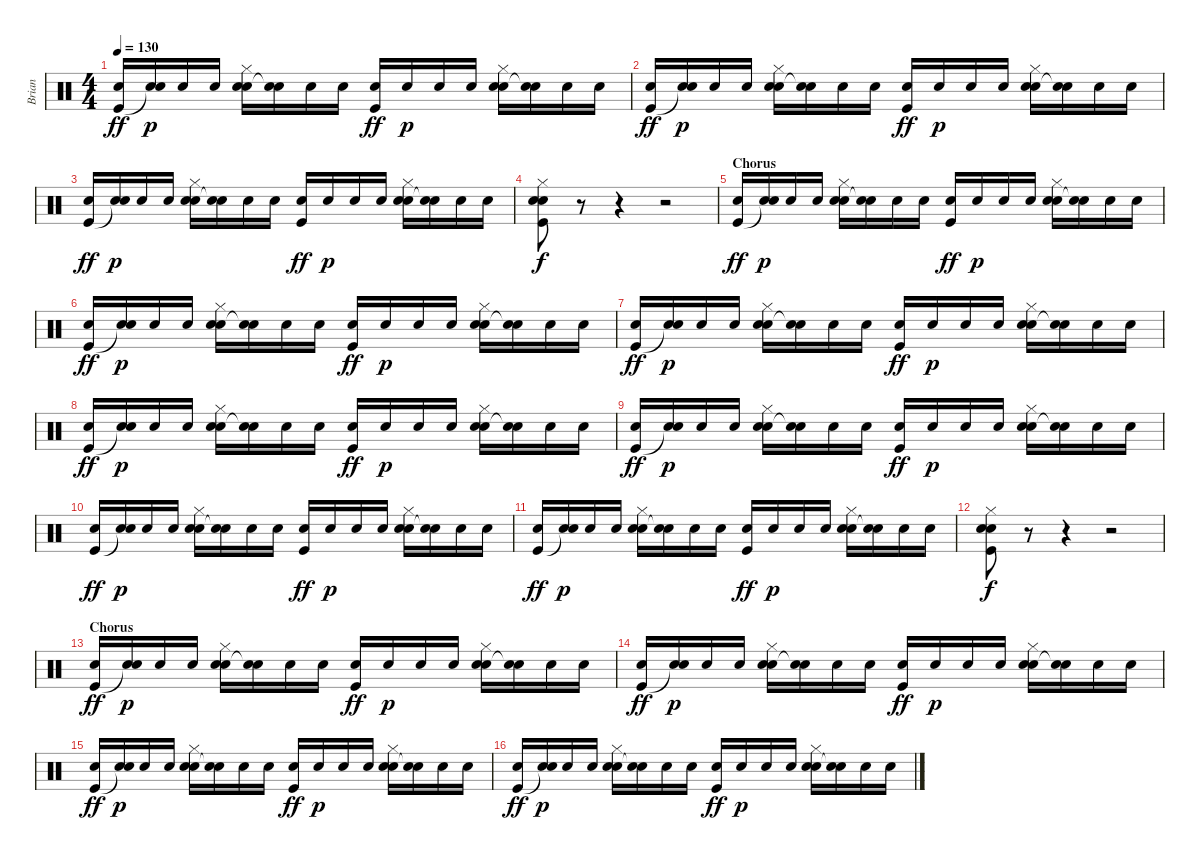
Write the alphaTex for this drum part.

\track ("Brian" "Brian") {instrument percussion}
\staff {score}
\articulation defaults
\ts (4 4)
\tempo 130
\clef neutral
\ks c
("Snare (hit) 2" "Kick (hit)").16{dy ff} ("Snare (hit) 2" "Snare (hit)"{t}).16{dy p} "Snare (hit) 2".16 "Snare (hit) 2".16 ("Snare (hit) 2" "Hi-Hat (closed)" "Snare (hit) 2").16 ("Snare (hit)"{t} "Snare (hit) 2").16 "Snare (hit) 2".16 "Snare (hit) 2".16 ("Snare (hit) 2" "Kick (hit)").16{dy ff} "Snare (hit) 2".16{dy p} "Snare (hit) 2".16 "Snare (hit) 2".16 ("Snare (hit) 2" "Hi-Hat (closed)" "Snare (hit) 2").16 ("Snare (hit)"{t} "Snare (hit) 2").16 "Snare (hit) 2".16 "Snare (hit) 2".16 |
("Snare (hit) 2" "Kick (hit)").16{dy ff} ("Snare (hit) 2" "Snare (hit)"{t}).16{dy p} "Snare (hit) 2".16 "Snare (hit) 2".16 ("Snare (hit) 2" "Hi-Hat (closed)" "Snare (hit) 2").16 ("Snare (hit)"{t} "Snare (hit) 2").16 "Snare (hit) 2".16 "Snare (hit) 2".16 ("Snare (hit) 2" "Kick (hit)").16{dy ff} "Snare (hit) 2".16{dy p} "Snare (hit) 2".16 "Snare (hit) 2".16 ("Snare (hit) 2" "Hi-Hat (closed)" "Snare (hit) 2").16 ("Snare (hit)"{t} "Snare (hit) 2").16 "Snare (hit) 2".16 "Snare (hit) 2".16 |
("Snare (hit) 2" "Kick (hit)").16{dy ff} ("Snare (hit) 2" "Snare (hit)"{t}).16{dy p} "Snare (hit) 2".16 "Snare (hit) 2".16 ("Snare (hit) 2" "Hi-Hat (closed)" "Snare (hit) 2").16 ("Snare (hit)"{t} "Snare (hit) 2").16 "Snare (hit) 2".16 "Snare (hit) 2".16 ("Snare (hit) 2" "Kick (hit)").16{dy ff} "Snare (hit) 2".16{dy p} "Snare (hit) 2".16 "Snare (hit) 2".16 ("Snare (hit) 2" "Hi-Hat (closed)" "Snare (hit) 2").16 ("Snare (hit)"{t} "Snare (hit) 2").16 "Snare (hit) 2".16 "Snare (hit) 2".16 |
("Snare (hit) 2" "Hi-Hat (closed)" "Snare (hit) 2" "Kick (hit)").8{dy f} r.8 r.4 r.2 |
\section ("" "Chorus")
("Snare (hit) 2" "Kick (hit)").16{dy ff} ("Snare (hit) 2" "Snare (hit)"{t}).16{dy p} "Snare (hit) 2".16 "Snare (hit) 2".16 ("Snare (hit) 2" "Hi-Hat (closed)" "Snare (hit) 2").16 ("Snare (hit)"{t} "Snare (hit) 2").16 "Snare (hit) 2".16 "Snare (hit) 2".16 ("Snare (hit) 2" "Kick (hit)").16{dy ff} "Snare (hit) 2".16{dy p} "Snare (hit) 2".16 "Snare (hit) 2".16 ("Snare (hit) 2" "Hi-Hat (closed)" "Snare (hit) 2").16 ("Snare (hit)"{t} "Snare (hit) 2").16 "Snare (hit) 2".16 "Snare (hit) 2".16 |
("Snare (hit) 2" "Kick (hit)").16{dy ff} ("Snare (hit) 2" "Snare (hit)"{t}).16{dy p} "Snare (hit) 2".16 "Snare (hit) 2".16 ("Snare (hit) 2" "Hi-Hat (closed)" "Snare (hit) 2").16 ("Snare (hit)"{t} "Snare (hit) 2").16 "Snare (hit) 2".16 "Snare (hit) 2".16 ("Snare (hit) 2" "Kick (hit)").16{dy ff} "Snare (hit) 2".16{dy p} "Snare (hit) 2".16 "Snare (hit) 2".16 ("Snare (hit) 2" "Hi-Hat (closed)" "Snare (hit) 2").16 ("Snare (hit)"{t} "Snare (hit) 2").16 "Snare (hit) 2".16 "Snare (hit) 2".16 |
("Snare (hit) 2" "Kick (hit)").16{dy ff} ("Snare (hit) 2" "Snare (hit)"{t}).16{dy p} "Snare (hit) 2".16 "Snare (hit) 2".16 ("Snare (hit) 2" "Hi-Hat (closed)" "Snare (hit) 2").16 ("Snare (hit)"{t} "Snare (hit) 2").16 "Snare (hit) 2".16 "Snare (hit) 2".16 ("Snare (hit) 2" "Kick (hit)").16{dy ff} "Snare (hit) 2".16{dy p} "Snare (hit) 2".16 "Snare (hit) 2".16 ("Snare (hit) 2" "Hi-Hat (closed)" "Snare (hit) 2").16 ("Snare (hit)"{t} "Snare (hit) 2").16 "Snare (hit) 2".16 "Snare (hit) 2".16 |
("Snare (hit) 2" "Kick (hit)").16{dy ff} ("Snare (hit) 2" "Snare (hit)"{t}).16{dy p} "Snare (hit) 2".16 "Snare (hit) 2".16 ("Snare (hit) 2" "Hi-Hat (closed)" "Snare (hit) 2").16 ("Snare (hit)"{t} "Snare (hit) 2").16 "Snare (hit) 2".16 "Snare (hit) 2".16 ("Snare (hit) 2" "Kick (hit)").16{dy ff} "Snare (hit) 2".16{dy p} "Snare (hit) 2".16 "Snare (hit) 2".16 ("Snare (hit) 2" "Hi-Hat (closed)" "Snare (hit) 2").16 ("Snare (hit)"{t} "Snare (hit) 2").16 "Snare (hit) 2".16 "Snare (hit) 2".16 |
("Snare (hit) 2" "Kick (hit)").16{dy ff} ("Snare (hit) 2" "Snare (hit)"{t}).16{dy p} "Snare (hit) 2".16 "Snare (hit) 2".16 ("Snare (hit) 2" "Hi-Hat (closed)" "Snare (hit) 2").16 ("Snare (hit)"{t} "Snare (hit) 2").16 "Snare (hit) 2".16 "Snare (hit) 2".16 ("Snare (hit) 2" "Kick (hit)").16{dy ff} "Snare (hit) 2".16{dy p} "Snare (hit) 2".16 "Snare (hit) 2".16 ("Snare (hit) 2" "Hi-Hat (closed)" "Snare (hit) 2").16 ("Snare (hit)"{t} "Snare (hit) 2").16 "Snare (hit) 2".16 "Snare (hit) 2".16 |
("Snare (hit) 2" "Kick (hit)").16{dy ff} ("Snare (hit) 2" "Snare (hit)"{t}).16{dy p} "Snare (hit) 2".16 "Snare (hit) 2".16 ("Snare (hit) 2" "Hi-Hat (closed)" "Snare (hit) 2").16 ("Snare (hit)"{t} "Snare (hit) 2").16 "Snare (hit) 2".16 "Snare (hit) 2".16 ("Snare (hit) 2" "Kick (hit)").16{dy ff} "Snare (hit) 2".16{dy p} "Snare (hit) 2".16 "Snare (hit) 2".16 ("Snare (hit) 2" "Hi-Hat (closed)" "Snare (hit) 2").16 ("Snare (hit)"{t} "Snare (hit) 2").16 "Snare (hit) 2".16 "Snare (hit) 2".16 |
("Snare (hit) 2" "Kick (hit)").16{dy ff} ("Snare (hit) 2" "Snare (hit)"{t}).16{dy p} "Snare (hit) 2".16 "Snare (hit) 2".16 ("Snare (hit) 2" "Hi-Hat (closed)" "Snare (hit) 2").16 ("Snare (hit)"{t} "Snare (hit) 2").16 "Snare (hit) 2".16 "Snare (hit) 2".16 ("Snare (hit) 2" "Kick (hit)").16{dy ff} "Snare (hit) 2".16{dy p} "Snare (hit) 2".16 "Snare (hit) 2".16 ("Snare (hit) 2" "Hi-Hat (closed)" "Snare (hit) 2").16 ("Snare (hit)"{t} "Snare (hit) 2").16 "Snare (hit) 2".16 "Snare (hit) 2".16 |
("Snare (hit) 2" "Hi-Hat (closed)" "Snare (hit) 2" "Kick (hit)").8{dy f} r.8 r.4 r.2 |
\section ("" "Chorus")
("Snare (hit) 2" "Kick (hit)").16{dy ff} ("Snare (hit) 2" "Snare (hit)"{t}).16{dy p} "Snare (hit) 2".16 "Snare (hit) 2".16 ("Snare (hit) 2" "Hi-Hat (closed)" "Snare (hit) 2").16 ("Snare (hit)"{t} "Snare (hit) 2").16 "Snare (hit) 2".16 "Snare (hit) 2".16 ("Snare (hit) 2" "Kick (hit)").16{dy ff} "Snare (hit) 2".16{dy p} "Snare (hit) 2".16 "Snare (hit) 2".16 ("Snare (hit) 2" "Hi-Hat (closed)" "Snare (hit) 2").16 ("Snare (hit)"{t} "Snare (hit) 2").16 "Snare (hit) 2".16 "Snare (hit) 2".16 |
("Snare (hit) 2" "Kick (hit)").16{dy ff} ("Snare (hit) 2" "Snare (hit)"{t}).16{dy p} "Snare (hit) 2".16 "Snare (hit) 2".16 ("Snare (hit) 2" "Hi-Hat (closed)" "Snare (hit) 2").16 ("Snare (hit)"{t} "Snare (hit) 2").16 "Snare (hit) 2".16 "Snare (hit) 2".16 ("Snare (hit) 2" "Kick (hit)").16{dy ff} "Snare (hit) 2".16{dy p} "Snare (hit) 2".16 "Snare (hit) 2".16 ("Snare (hit) 2" "Hi-Hat (closed)" "Snare (hit) 2").16 ("Snare (hit)"{t} "Snare (hit) 2").16 "Snare (hit) 2".16 "Snare (hit) 2".16 |
("Snare (hit) 2" "Kick (hit)").16{dy ff} ("Snare (hit) 2" "Snare (hit)"{t}).16{dy p} "Snare (hit) 2".16 "Snare (hit) 2".16 ("Snare (hit) 2" "Hi-Hat (closed)" "Snare (hit) 2").16 ("Snare (hit)"{t} "Snare (hit) 2").16 "Snare (hit) 2".16 "Snare (hit) 2".16 ("Snare (hit) 2" "Kick (hit)").16{dy ff} "Snare (hit) 2".16{dy p} "Snare (hit) 2".16 "Snare (hit) 2".16 ("Snare (hit) 2" "Hi-Hat (closed)" "Snare (hit) 2").16 ("Snare (hit)"{t} "Snare (hit) 2").16 "Snare (hit) 2".16 "Snare (hit) 2".16 |
("Snare (hit) 2" "Kick (hit)").16{dy ff} ("Snare (hit) 2" "Snare (hit)"{t}).16{dy p} "Snare (hit) 2".16 "Snare (hit) 2".16 ("Snare (hit) 2" "Hi-Hat (closed)" "Snare (hit) 2").16 ("Snare (hit)"{t} "Snare (hit) 2").16 "Snare (hit) 2".16 "Snare (hit) 2".16 ("Snare (hit) 2" "Kick (hit)").16{dy ff} "Snare (hit) 2".16{dy p} "Snare (hit) 2".16 "Snare (hit) 2".16 ("Snare (hit) 2" "Hi-Hat (closed)" "Snare (hit) 2").16 ("Snare (hit)"{t} "Snare (hit) 2").16 "Snare (hit) 2".16 "Snare (hit) 2".16
